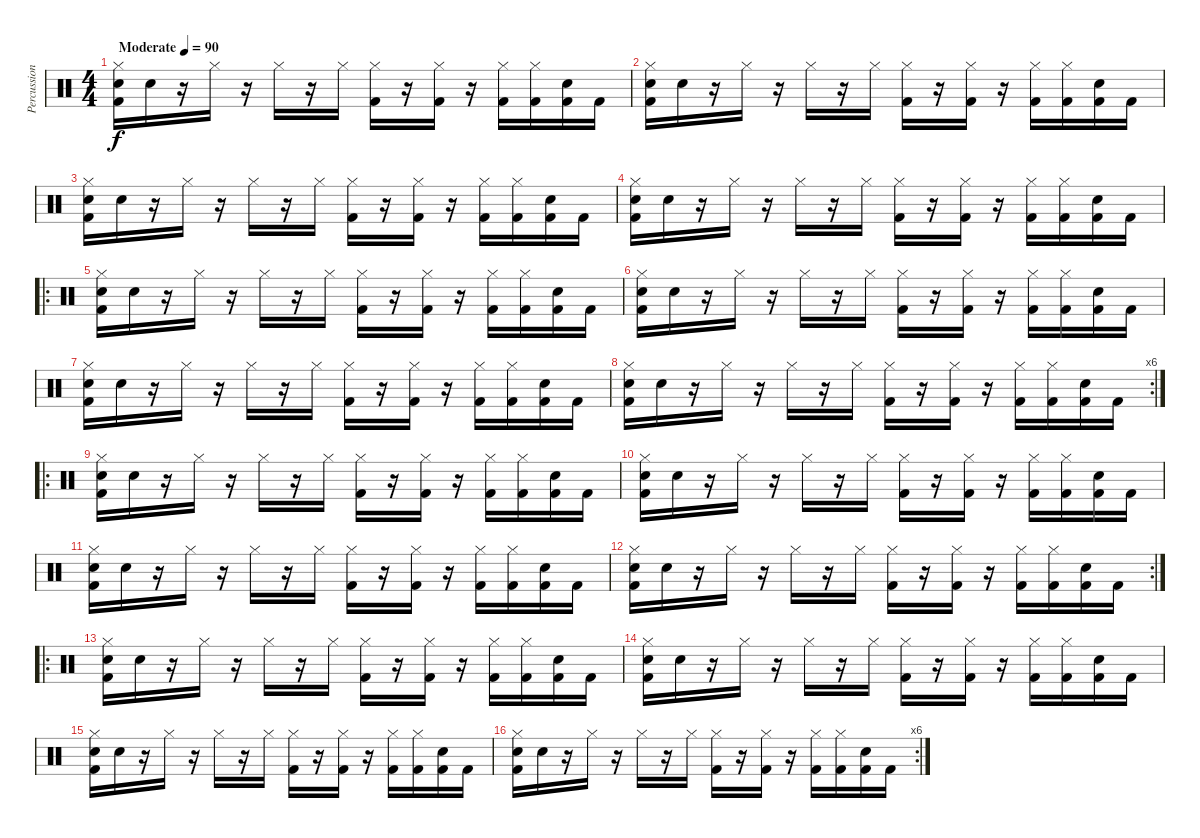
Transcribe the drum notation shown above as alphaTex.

\track ("Percussion" "Percussion") {instrument percussion}
\staff {score}
\articulation defaults
\ts (4 4)
\tempo (90 "Moderate")
\clef neutral
\ks c
("Hi-Hat (closed)" "Electric Snare (hit)" "Kick (hit) 2").16{dy f} "Electric Snare (hit)".16 r.16 "Hi-Hat (closed)".16 r.16 "Hi-Hat (closed)".16 r.16 "Hi-Hat (closed)".16 ("Hi-Hat (closed)" "Kick (hit) 2").16 r.16 ("Hi-Hat (closed)" "Kick (hit) 2").16 r.16 ("Hi-Hat (closed)" "Kick (hit) 2").16 ("Hi-Hat (closed)" "Kick (hit) 2").16 ("Electric Snare (hit)" "Kick (hit) 2").16 "Kick (hit) 2".16 |
("Hi-Hat (closed)" "Electric Snare (hit)" "Kick (hit) 2").16 "Electric Snare (hit)".16 r.16 "Hi-Hat (closed)".16 r.16 "Hi-Hat (closed)".16 r.16 "Hi-Hat (closed)".16 ("Hi-Hat (closed)" "Kick (hit) 2").16 r.16 ("Hi-Hat (closed)" "Kick (hit) 2").16 r.16 ("Hi-Hat (closed)" "Kick (hit) 2").16 ("Hi-Hat (closed)" "Kick (hit) 2").16 ("Electric Snare (hit)" "Kick (hit) 2").16 "Kick (hit) 2".16 |
("Hi-Hat (closed)" "Electric Snare (hit)" "Kick (hit) 2").16 "Electric Snare (hit)".16 r.16 "Hi-Hat (closed)".16 r.16 "Hi-Hat (closed)".16 r.16 "Hi-Hat (closed)".16 ("Hi-Hat (closed)" "Kick (hit) 2").16 r.16 ("Hi-Hat (closed)" "Kick (hit) 2").16 r.16 ("Hi-Hat (closed)" "Kick (hit) 2").16 ("Hi-Hat (closed)" "Kick (hit) 2").16 ("Electric Snare (hit)" "Kick (hit) 2").16 "Kick (hit) 2".16 |
("Hi-Hat (closed)" "Electric Snare (hit)" "Kick (hit) 2").16 "Electric Snare (hit)".16 r.16 "Hi-Hat (closed)".16 r.16 "Hi-Hat (closed)".16 r.16 "Hi-Hat (closed)".16 ("Hi-Hat (closed)" "Kick (hit) 2").16 r.16 ("Hi-Hat (closed)" "Kick (hit) 2").16 r.16 ("Hi-Hat (closed)" "Kick (hit) 2").16 ("Hi-Hat (closed)" "Kick (hit) 2").16 ("Electric Snare (hit)" "Kick (hit) 2").16 "Kick (hit) 2".16 |
\ro
("Hi-Hat (closed)" "Electric Snare (hit)" "Kick (hit) 2").16 "Electric Snare (hit)".16 r.16 "Hi-Hat (closed)".16 r.16 "Hi-Hat (closed)".16 r.16 "Hi-Hat (closed)".16 ("Hi-Hat (closed)" "Kick (hit) 2").16 r.16 ("Hi-Hat (closed)" "Kick (hit) 2").16 r.16 ("Hi-Hat (closed)" "Kick (hit) 2").16 ("Hi-Hat (closed)" "Kick (hit) 2").16 ("Electric Snare (hit)" "Kick (hit) 2").16 "Kick (hit) 2".16 |
("Hi-Hat (closed)" "Electric Snare (hit)" "Kick (hit) 2").16 "Electric Snare (hit)".16 r.16 "Hi-Hat (closed)".16 r.16 "Hi-Hat (closed)".16 r.16 "Hi-Hat (closed)".16 ("Hi-Hat (closed)" "Kick (hit) 2").16 r.16 ("Hi-Hat (closed)" "Kick (hit) 2").16 r.16 ("Hi-Hat (closed)" "Kick (hit) 2").16 ("Hi-Hat (closed)" "Kick (hit) 2").16 ("Electric Snare (hit)" "Kick (hit) 2").16 "Kick (hit) 2".16 |
("Hi-Hat (closed)" "Electric Snare (hit)" "Kick (hit) 2").16 "Electric Snare (hit)".16 r.16 "Hi-Hat (closed)".16 r.16 "Hi-Hat (closed)".16 r.16 "Hi-Hat (closed)".16 ("Hi-Hat (closed)" "Kick (hit) 2").16 r.16 ("Hi-Hat (closed)" "Kick (hit) 2").16 r.16 ("Hi-Hat (closed)" "Kick (hit) 2").16 ("Hi-Hat (closed)" "Kick (hit) 2").16 ("Electric Snare (hit)" "Kick (hit) 2").16 "Kick (hit) 2".16 |
\rc 6
("Hi-Hat (closed)" "Electric Snare (hit)" "Kick (hit) 2").16 "Electric Snare (hit)".16 r.16 "Hi-Hat (closed)".16 r.16 "Hi-Hat (closed)".16 r.16 "Hi-Hat (closed)".16 ("Hi-Hat (closed)" "Kick (hit) 2").16 r.16 ("Hi-Hat (closed)" "Kick (hit) 2").16 r.16 ("Hi-Hat (closed)" "Kick (hit) 2").16 ("Hi-Hat (closed)" "Kick (hit) 2").16 ("Electric Snare (hit)" "Kick (hit) 2").16 "Kick (hit) 2".16 |
\ro
("Hi-Hat (closed)" "Electric Snare (hit)" "Kick (hit) 2").16 "Electric Snare (hit)".16 r.16 "Hi-Hat (closed)".16 r.16 "Hi-Hat (closed)".16 r.16 "Hi-Hat (closed)".16 ("Hi-Hat (closed)" "Kick (hit) 2").16 r.16 ("Hi-Hat (closed)" "Kick (hit) 2").16 r.16 ("Hi-Hat (closed)" "Kick (hit) 2").16 ("Hi-Hat (closed)" "Kick (hit) 2").16 ("Electric Snare (hit)" "Kick (hit) 2").16 "Kick (hit) 2".16 |
("Hi-Hat (closed)" "Electric Snare (hit)" "Kick (hit) 2").16 "Electric Snare (hit)".16 r.16 "Hi-Hat (closed)".16 r.16 "Hi-Hat (closed)".16 r.16 "Hi-Hat (closed)".16 ("Hi-Hat (closed)" "Kick (hit) 2").16 r.16 ("Hi-Hat (closed)" "Kick (hit) 2").16 r.16 ("Hi-Hat (closed)" "Kick (hit) 2").16 ("Hi-Hat (closed)" "Kick (hit) 2").16 ("Electric Snare (hit)" "Kick (hit) 2").16 "Kick (hit) 2".16 |
("Hi-Hat (closed)" "Electric Snare (hit)" "Kick (hit) 2").16 "Electric Snare (hit)".16 r.16 "Hi-Hat (closed)".16 r.16 "Hi-Hat (closed)".16 r.16 "Hi-Hat (closed)".16 ("Hi-Hat (closed)" "Kick (hit) 2").16 r.16 ("Hi-Hat (closed)" "Kick (hit) 2").16 r.16 ("Hi-Hat (closed)" "Kick (hit) 2").16 ("Hi-Hat (closed)" "Kick (hit) 2").16 ("Electric Snare (hit)" "Kick (hit) 2").16 "Kick (hit) 2".16 |
\rc 2
("Hi-Hat (closed)" "Electric Snare (hit)" "Kick (hit) 2").16 "Electric Snare (hit)".16 r.16 "Hi-Hat (closed)".16 r.16 "Hi-Hat (closed)".16 r.16 "Hi-Hat (closed)".16 ("Hi-Hat (closed)" "Kick (hit) 2").16 r.16 ("Hi-Hat (closed)" "Kick (hit) 2").16 r.16 ("Hi-Hat (closed)" "Kick (hit) 2").16 ("Hi-Hat (closed)" "Kick (hit) 2").16 ("Electric Snare (hit)" "Kick (hit) 2").16 "Kick (hit) 2".16 |
\ro
("Hi-Hat (closed)" "Electric Snare (hit)" "Kick (hit) 2").16 "Electric Snare (hit)".16 r.16 "Hi-Hat (closed)".16 r.16 "Hi-Hat (closed)".16 r.16 "Hi-Hat (closed)".16 ("Hi-Hat (closed)" "Kick (hit) 2").16 r.16 ("Hi-Hat (closed)" "Kick (hit) 2").16 r.16 ("Hi-Hat (closed)" "Kick (hit) 2").16 ("Hi-Hat (closed)" "Kick (hit) 2").16 ("Electric Snare (hit)" "Kick (hit) 2").16 "Kick (hit) 2".16 |
("Hi-Hat (closed)" "Electric Snare (hit)" "Kick (hit) 2").16 "Electric Snare (hit)".16 r.16 "Hi-Hat (closed)".16 r.16 "Hi-Hat (closed)".16 r.16 "Hi-Hat (closed)".16 ("Hi-Hat (closed)" "Kick (hit) 2").16 r.16 ("Hi-Hat (closed)" "Kick (hit) 2").16 r.16 ("Hi-Hat (closed)" "Kick (hit) 2").16 ("Hi-Hat (closed)" "Kick (hit) 2").16 ("Electric Snare (hit)" "Kick (hit) 2").16 "Kick (hit) 2".16 |
("Hi-Hat (closed)" "Electric Snare (hit)" "Kick (hit) 2").16 "Electric Snare (hit)".16 r.16 "Hi-Hat (closed)".16 r.16 "Hi-Hat (closed)".16 r.16 "Hi-Hat (closed)".16 ("Hi-Hat (closed)" "Kick (hit) 2").16 r.16 ("Hi-Hat (closed)" "Kick (hit) 2").16 r.16 ("Hi-Hat (closed)" "Kick (hit) 2").16 ("Hi-Hat (closed)" "Kick (hit) 2").16 ("Electric Snare (hit)" "Kick (hit) 2").16 "Kick (hit) 2".16 |
\rc 6
("Hi-Hat (closed)" "Electric Snare (hit)" "Kick (hit) 2").16 "Electric Snare (hit)".16 r.16 "Hi-Hat (closed)".16 r.16 "Hi-Hat (closed)".16 r.16 "Hi-Hat (closed)".16 ("Hi-Hat (closed)" "Kick (hit) 2").16 r.16 ("Hi-Hat (closed)" "Kick (hit) 2").16 r.16 ("Hi-Hat (closed)" "Kick (hit) 2").16 ("Hi-Hat (closed)" "Kick (hit) 2").16 ("Electric Snare (hit)" "Kick (hit) 2").16 "Kick (hit) 2".16
